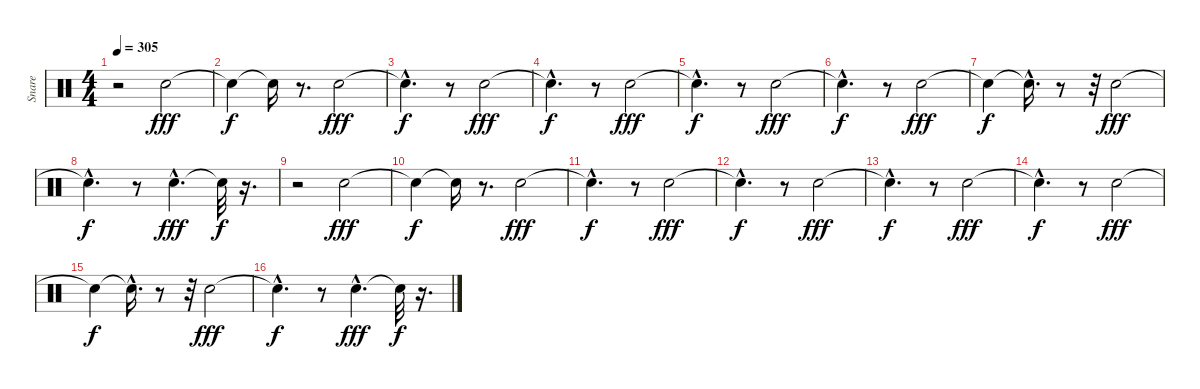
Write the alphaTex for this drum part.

\track ("Snare" "Snare") {instrument percussion}
\staff {score}
\articulation defaults
\ts (4 4)
\tempo 305
\clef neutral
\ks c
r.2{dy f} "Electric Snare (hit)".2{dy fff} |
"Snare (hit)"{t}.4{dy f} "Snare (hit)"{t}.16 r.8{d} "Electric Snare (hit)".2{dy fff} |
"Snare (hit)"{hac t}.4{d dy f} r.8 "Electric Snare (hit)".2{dy fff} |
"Snare (hit)"{hac t}.4{d dy f} r.8 "Electric Snare (hit)".2{dy fff} |
"Snare (hit)"{hac t}.4{d dy f} r.8 "Electric Snare (hit)".2{dy fff} |
"Snare (hit)"{hac t}.4{d dy f} r.8 "Electric Snare (hit)".2{dy fff} |
"Snare (hit)"{t}.4{dy f} "Snare (hit)"{hac t}.16{d} r.8 r.32 "Electric Snare (hit)".2{dy fff} |
"Snare (hit)"{hac t}.4{d dy f} r.8 "Electric Snare (hit)"{hac}.4{d dy fff} "Snare (hit)"{t}.32{dy f} r.16{d} |
r.2 "Electric Snare (hit)".2{dy fff} |
"Snare (hit)"{t}.4{dy f} "Snare (hit)"{t}.16 r.8{d} "Electric Snare (hit)".2{dy fff} |
"Snare (hit)"{hac t}.4{d dy f} r.8 "Electric Snare (hit)".2{dy fff} |
"Snare (hit)"{hac t}.4{d dy f} r.8 "Electric Snare (hit)".2{dy fff} |
"Snare (hit)"{hac t}.4{d dy f} r.8 "Electric Snare (hit)".2{dy fff} |
"Snare (hit)"{hac t}.4{d dy f} r.8 "Electric Snare (hit)".2{dy fff} |
"Snare (hit)"{t}.4{dy f} "Snare (hit)"{hac t}.16{d} r.8 r.32 "Electric Snare (hit)".2{dy fff} |
"Snare (hit)"{hac t}.4{d dy f} r.8 "Electric Snare (hit)"{hac}.4{d dy fff} "Snare (hit)"{t}.32{dy f} r.16{d}
